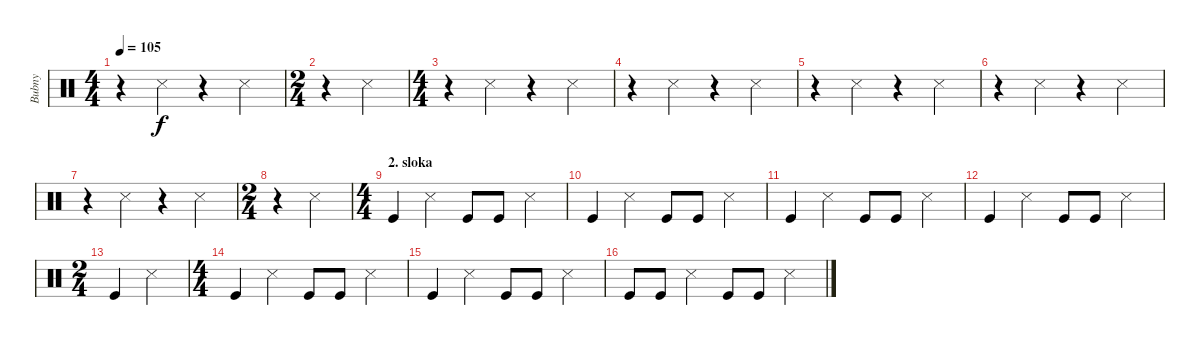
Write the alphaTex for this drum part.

\track ("Bubny" "Bubny") {instrument percussion}
\staff {score}
\articulation defaults
\ts (4 4)
\tempo 105
\clef neutral
\ks c
r.4{dy f} "Snare (side stick) 3".4 r.4 "Snare (side stick) 3".4 |
\ts (2 4)
r.4 "Snare (side stick) 3".4 |
\ts (4 4)
r.4 "Snare (side stick) 3".4 r.4 "Snare (side stick) 3".4 |
r.4 "Snare (side stick) 3".4 r.4 "Snare (side stick) 3".4 |
r.4 "Snare (side stick) 3".4 r.4 "Snare (side stick) 3".4 |
r.4 "Snare (side stick) 3".4 r.4 "Snare (side stick) 3".4 |
r.4 "Snare (side stick) 3".4 r.4 "Snare (side stick) 3".4 |
\ts (2 4)
r.4 "Snare (side stick) 3".4 |
\ts (4 4)
\section ("" "2. sloka")
"Kick (hit)".4 "Snare (side stick) 3".4 "Kick (hit)".8 "Kick (hit)".8 "Snare (side stick) 3".4 |
"Kick (hit)".4 "Snare (side stick) 3".4 "Kick (hit)".8 "Kick (hit)".8 "Snare (side stick) 3".4 |
"Kick (hit)".4 "Snare (side stick) 3".4 "Kick (hit)".8 "Kick (hit)".8 "Snare (side stick) 3".4 |
"Kick (hit)".4 "Snare (side stick) 3".4 "Kick (hit)".8 "Kick (hit)".8 "Snare (side stick) 3".4 |
\ts (2 4)
"Kick (hit)".4 "Snare (side stick) 3".4 |
\ts (4 4)
"Kick (hit)".4 "Snare (side stick) 3".4 "Kick (hit)".8 "Kick (hit)".8 "Snare (side stick) 3".4 |
"Kick (hit)".4 "Snare (side stick) 3".4 "Kick (hit)".8 "Kick (hit)".8 "Snare (side stick) 3".4 |
"Kick (hit)".8 "Kick (hit)".8 "Snare (side stick) 3".4 "Kick (hit)".8 "Kick (hit)".8 "Snare (side stick) 3".4
